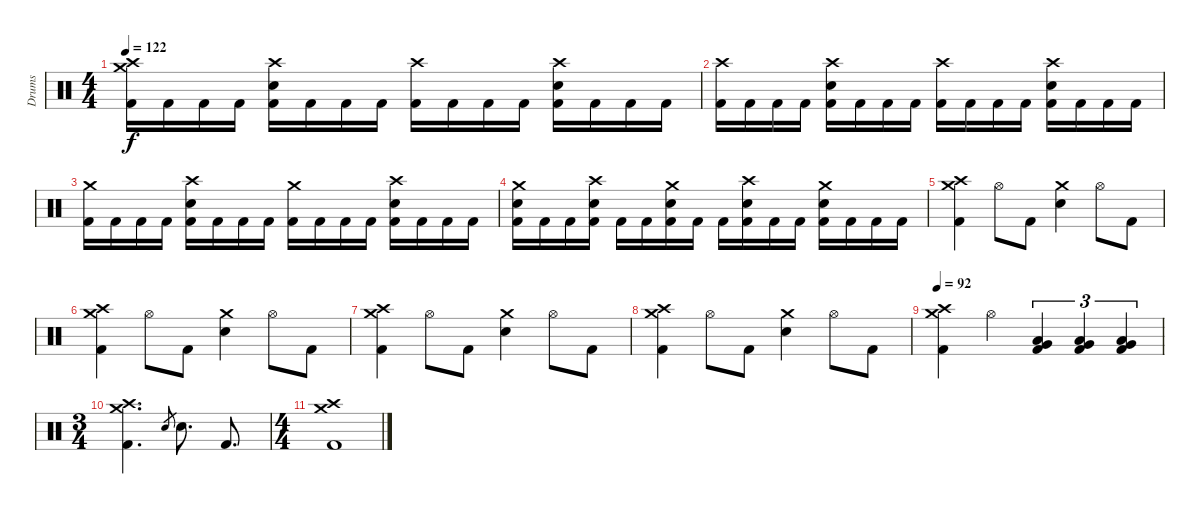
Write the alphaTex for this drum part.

\track ("Drums" "Drums") {instrument percussion}
\staff {score}
\articulation defaults
\ts (4 4)
\tempo 122
\clef neutral
\ks c
("Crash medium (hit)" "Crash high (hit)" "Kick (hit) 2").16{dy f} "Kick (hit) 2".16 "Kick (hit) 2".16 "Kick (hit) 2".16 ("Crash high (hit)" "Electric Snare (hit)" "Kick (hit) 2").16 "Kick (hit) 2".16 "Kick (hit) 2".16 "Kick (hit) 2".16 ("Crash high (hit)" "Kick (hit) 2").16 "Kick (hit) 2".16 "Kick (hit) 2".16 "Kick (hit) 2".16 ("Crash high (hit)" "Electric Snare (hit)" "Kick (hit) 2").16 "Kick (hit) 2".16 "Kick (hit) 2".16 "Kick (hit) 2".16 |
("Crash high (hit)" "Kick (hit) 2").16 "Kick (hit) 2".16 "Kick (hit) 2".16 "Kick (hit) 2".16 ("Crash high (hit)" "Electric Snare (hit)" "Kick (hit) 2").16 "Kick (hit) 2".16 "Kick (hit) 2".16 "Kick (hit) 2".16 ("Crash high (hit)" "Kick (hit) 2").16 "Kick (hit) 2".16 "Kick (hit) 2".16 "Kick (hit) 2".16 ("Crash high (hit)" "Electric Snare (hit)" "Kick (hit) 2").16 "Kick (hit) 2".16 "Kick (hit) 2".16 "Kick (hit) 2".16 |
("Crash medium (hit)" "Kick (hit) 2").16 "Kick (hit) 2".16 "Kick (hit) 2".16 "Kick (hit) 2".16 ("Crash high (hit)" "Electric Snare (hit)" "Kick (hit) 2").16 "Kick (hit) 2".16 "Kick (hit) 2".16 "Kick (hit) 2".16 ("Crash medium (hit)" "Kick (hit) 2").16 "Kick (hit) 2".16 "Kick (hit) 2".16 "Kick (hit) 2".16 ("Crash high (hit)" "Electric Snare (hit)" "Kick (hit) 2").16 "Kick (hit) 2".16 "Kick (hit) 2".16 "Kick (hit) 2".16 |
("Crash medium (hit)" "Electric Snare (hit)" "Kick (hit) 2").16 "Kick (hit) 2".16 "Kick (hit) 2".16 ("Crash high (hit)" "Electric Snare (hit)" "Kick (hit) 2").16 "Kick (hit) 2".16 "Kick (hit) 2".16 ("Crash medium (hit)" "Electric Snare (hit)" "Kick (hit) 2").16 "Kick (hit) 2".16 "Kick (hit) 2".16 ("Crash high (hit)" "Electric Snare (hit)" "Kick (hit) 2").16 "Kick (hit) 2".16 "Kick (hit) 2".16 ("Crash medium (hit)" "Electric Snare (hit)" "Kick (hit) 2").16 "Kick (hit) 2".16 "Kick (hit) 2".16 "Kick (hit) 2".16 |
("Crash medium (hit)" "Crash high (hit)" "Kick (hit) 2").4 "Hi-Hat (open)".8 "Kick (hit) 2".8 ("Crash medium (hit)" "Electric Snare (hit)").4 "Hi-Hat (open)".8 "Kick (hit) 2".8 |
("Crash medium (hit)" "Crash high (hit)" "Kick (hit) 2").4 "Hi-Hat (open)".8 "Kick (hit) 2".8 ("Crash medium (hit)" "Electric Snare (hit)").4 "Hi-Hat (open)".8 "Kick (hit) 2".8 |
("Crash medium (hit)" "Crash high (hit)" "Kick (hit) 2").4 "Hi-Hat (open)".8 "Kick (hit) 2".8 ("Crash medium (hit)" "Electric Snare (hit)").4 "Hi-Hat (open)".8 "Kick (hit) 2".8 |
("Crash medium (hit)" "Crash high (hit)" "Kick (hit) 2").4 "Hi-Hat (open)".8 "Kick (hit) 2".8 ("Crash medium (hit)" "Electric Snare (hit)").4 "Hi-Hat (open)".8 "Kick (hit) 2".8 |
\tempo 92
("Crash medium (hit)" "Crash high (hit)" "Kick (hit) 2").4 "Hi-Hat (open)".4 ("Very Low Tom (hit)" "Low Tom (hit)" "Kick (hit) 2").4{tu (3 2)} ("Very Low Tom (hit)" "Low Tom (hit)" "Kick (hit) 2").4{tu (3 2)} ("Very Low Tom (hit)" "Low Tom (hit)" "Kick (hit) 2").4{tu (3 2)} |
\ts (3 4)
("Crash medium (hit)" "Crash high (hit)" "Kick (hit) 2").4{d} "Electric Snare (hit)".8{gr} "Electric Snare (hit)".8{d} "Kick (hit) 2".8{d} |
\ts (4 4)
("Crash medium (hit)" "Crash high (hit)" "Kick (hit) 2").1
